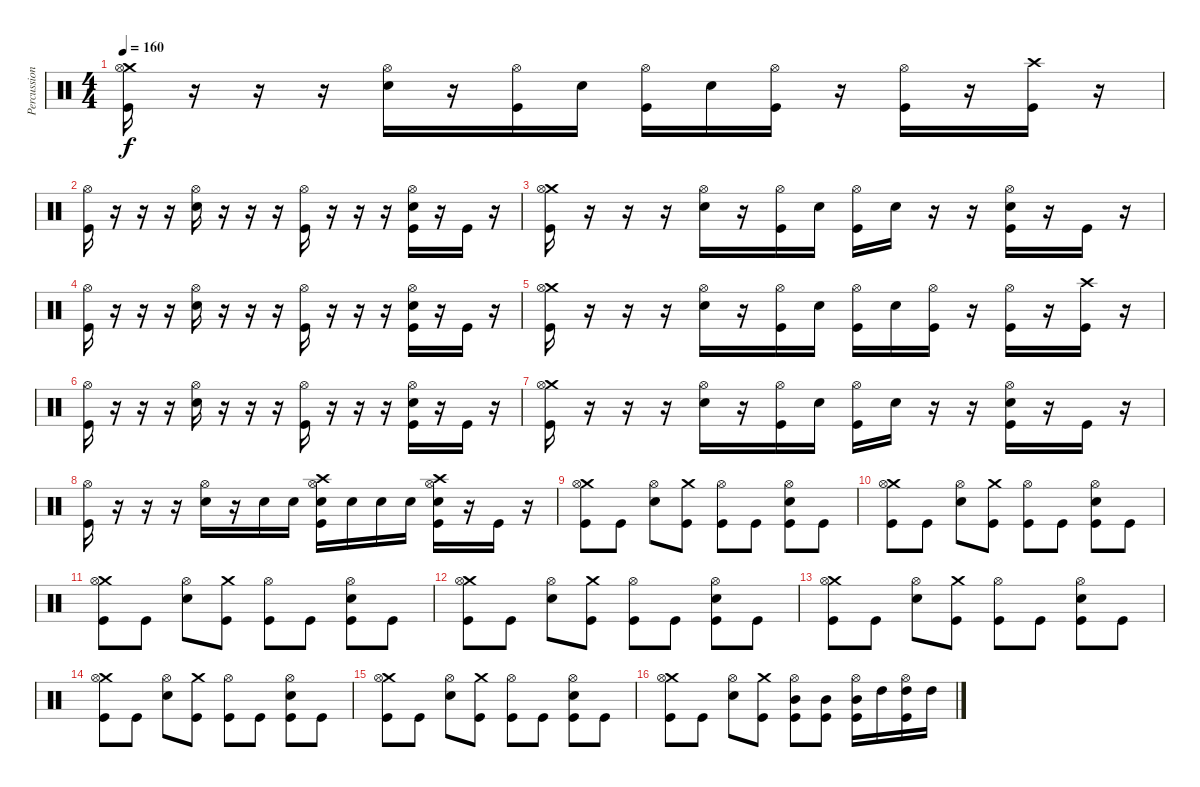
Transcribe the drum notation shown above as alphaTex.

\track ("Percussion" "Percussion") {instrument percussion}
\staff {score}
\articulation defaults
\ts (4 4)
\tempo 160
\clef neutral
\ks c
("Crash medium (hit)" "Hi-Hat (open)" "Kick (hit)").16{dy f} r.16 r.16 r.16 ("Snare (hit) 2" "Hi-Hat (open)").16 r.16 ("Hi-Hat (open)" "Kick (hit)").16 "Snare (hit) 2".16 ("Hi-Hat (open)" "Kick (hit)").16 "Snare (hit) 2".16 ("Hi-Hat (open)" "Kick (hit)").16 r.16 ("Hi-Hat (open)" "Kick (hit)").16 r.16 ("Crash high (hit)" "Kick (hit)").16 r.16 |
("Hi-Hat (open)" "Kick (hit)").16 r.16 r.16 r.16 ("Snare (hit) 2" "Hi-Hat (open)").16 r.16 r.16 r.16 ("Hi-Hat (open)" "Kick (hit)").16 r.16 r.16 r.16 ("Snare (hit) 2" "Hi-Hat (open)" "Kick (hit)").16 r.16 "Kick (hit)".16 r.16 |
("Crash medium (hit)" "Hi-Hat (open)" "Kick (hit)").16 r.16 r.16 r.16 ("Snare (hit) 2" "Hi-Hat (open)").16 r.16 ("Hi-Hat (open)" "Kick (hit)").16 "Snare (hit) 2".16 ("Hi-Hat (open)" "Kick (hit)").16 "Snare (hit) 2".16 r.16 r.16 ("Snare (hit) 2" "Hi-Hat (open)" "Kick (hit)").16 r.16 "Kick (hit)".16 r.16 |
("Hi-Hat (open)" "Kick (hit)").16 r.16 r.16 r.16 ("Snare (hit) 2" "Hi-Hat (open)").16 r.16 r.16 r.16 ("Hi-Hat (open)" "Kick (hit)").16 r.16 r.16 r.16 ("Snare (hit) 2" "Hi-Hat (open)" "Kick (hit)").16 r.16 "Kick (hit)".16 r.16 |
("Crash medium (hit)" "Hi-Hat (open)" "Kick (hit)").16 r.16 r.16 r.16 ("Snare (hit) 2" "Hi-Hat (open)").16 r.16 ("Hi-Hat (open)" "Kick (hit)").16 "Snare (hit) 2".16 ("Hi-Hat (open)" "Kick (hit)").16 "Snare (hit) 2".16 ("Hi-Hat (open)" "Kick (hit)").16 r.16 ("Hi-Hat (open)" "Kick (hit)").16 r.16 ("Crash high (hit)" "Kick (hit)").16 r.16 |
("Hi-Hat (open)" "Kick (hit)").16 r.16 r.16 r.16 ("Snare (hit) 2" "Hi-Hat (open)").16 r.16 r.16 r.16 ("Hi-Hat (open)" "Kick (hit)").16 r.16 r.16 r.16 ("Snare (hit) 2" "Hi-Hat (open)" "Kick (hit)").16 r.16 "Kick (hit)".16 r.16 |
("Crash medium (hit)" "Hi-Hat (open)" "Kick (hit)").16 r.16 r.16 r.16 ("Snare (hit) 2" "Hi-Hat (open)").16 r.16 ("Hi-Hat (open)" "Kick (hit)").16 "Snare (hit) 2".16 ("Hi-Hat (open)" "Kick (hit)").16 "Snare (hit) 2".16 r.16 r.16 ("Snare (hit) 2" "Hi-Hat (open)" "Kick (hit)").16 r.16 "Kick (hit)".16 r.16 |
("Hi-Hat (open)" "Kick (hit)").16 r.16 r.16 r.16 ("Snare (hit) 2" "Hi-Hat (open)").16 r.16 "Snare (hit) 2".16 "Snare (hit) 2".16 ("Crash high (hit)" "Snare (hit) 2" "Hi-Hat (open)" "Kick (hit)").16 "Snare (hit) 2".16 "Snare (hit) 2".16 "Snare (hit) 2".16 ("Crash high (hit)" "Snare (hit) 2" "Hi-Hat (open)" "Kick (hit)").16 r.16 "Kick (hit)".16 r.16 |
("Crash medium (hit)" "Hi-Hat (open)" "Kick (hit)").8 "Kick (hit)".8 ("Snare (hit) 2" "Hi-Hat (open)").8 ("Crash medium (hit)" "Kick (hit)").8 ("Hi-Hat (open)" "Kick (hit)").8 "Kick (hit)".8 ("Snare (hit) 2" "Hi-Hat (open)" "Kick (hit)").8 "Kick (hit)".8 |
("Crash medium (hit)" "Hi-Hat (open)" "Kick (hit)").8 "Kick (hit)".8 ("Snare (hit) 2" "Hi-Hat (open)").8 ("Crash medium (hit)" "Kick (hit)").8 ("Hi-Hat (open)" "Kick (hit)").8 "Kick (hit)".8 ("Snare (hit) 2" "Hi-Hat (open)" "Kick (hit)").8 "Kick (hit)".8 |
("Crash medium (hit)" "Hi-Hat (open)" "Kick (hit)").8 "Kick (hit)".8 ("Snare (hit) 2" "Hi-Hat (open)").8 ("Crash medium (hit)" "Kick (hit)").8 ("Hi-Hat (open)" "Kick (hit)").8 "Kick (hit)".8 ("Snare (hit) 2" "Hi-Hat (open)" "Kick (hit)").8 "Kick (hit)".8 |
("Crash medium (hit)" "Hi-Hat (open)" "Kick (hit)").8 "Kick (hit)".8 ("Snare (hit) 2" "Hi-Hat (open)").8 ("Crash medium (hit)" "Kick (hit)").8 ("Hi-Hat (open)" "Kick (hit)").8 "Kick (hit)".8 ("Snare (hit) 2" "Hi-Hat (open)" "Kick (hit)").8 "Kick (hit)".8 |
("Crash medium (hit)" "Hi-Hat (open)" "Kick (hit)").8 "Kick (hit)".8 ("Snare (hit) 2" "Hi-Hat (open)").8 ("Crash medium (hit)" "Kick (hit)").8 ("Hi-Hat (open)" "Kick (hit)").8 "Kick (hit)".8 ("Snare (hit) 2" "Hi-Hat (open)" "Kick (hit)").8 "Kick (hit)".8 |
("Crash medium (hit)" "Hi-Hat (open)" "Kick (hit)").8 "Kick (hit)".8 ("Snare (hit) 2" "Hi-Hat (open)").8 ("Crash medium (hit)" "Kick (hit)").8 ("Hi-Hat (open)" "Kick (hit)").8 "Kick (hit)".8 ("Snare (hit) 2" "Hi-Hat (open)" "Kick (hit)").8 "Kick (hit)".8 |
("Crash medium (hit)" "Hi-Hat (open)" "Kick (hit)").8 "Kick (hit)".8 ("Snare (hit) 2" "Hi-Hat (open)").8 ("Crash medium (hit)" "Kick (hit)").8 ("Hi-Hat (open)" "Kick (hit)").8 "Kick (hit)".8 ("Snare (hit) 2" "Hi-Hat (open)" "Kick (hit)").8 "Kick (hit)".8 |
("Crash medium (hit)" "Hi-Hat (open)" "Kick (hit)").8 "Kick (hit)".8 ("Snare (hit) 2" "Hi-Hat (open)").8 ("Crash medium (hit)" "Kick (hit)").8 ("Mid Tom (hit)" "Hi-Hat (open)" "Kick (hit)").8 ("Mid Tom (hit)" "Kick (hit)").8 ("Mid Tom (hit)" "Hi-Hat (open)" "Kick (hit)").16 "High Tom (hit)".16 ("High Tom (hit)" "Hi-Hat (open)" "Kick (hit)").16 "High Tom (hit)".16
